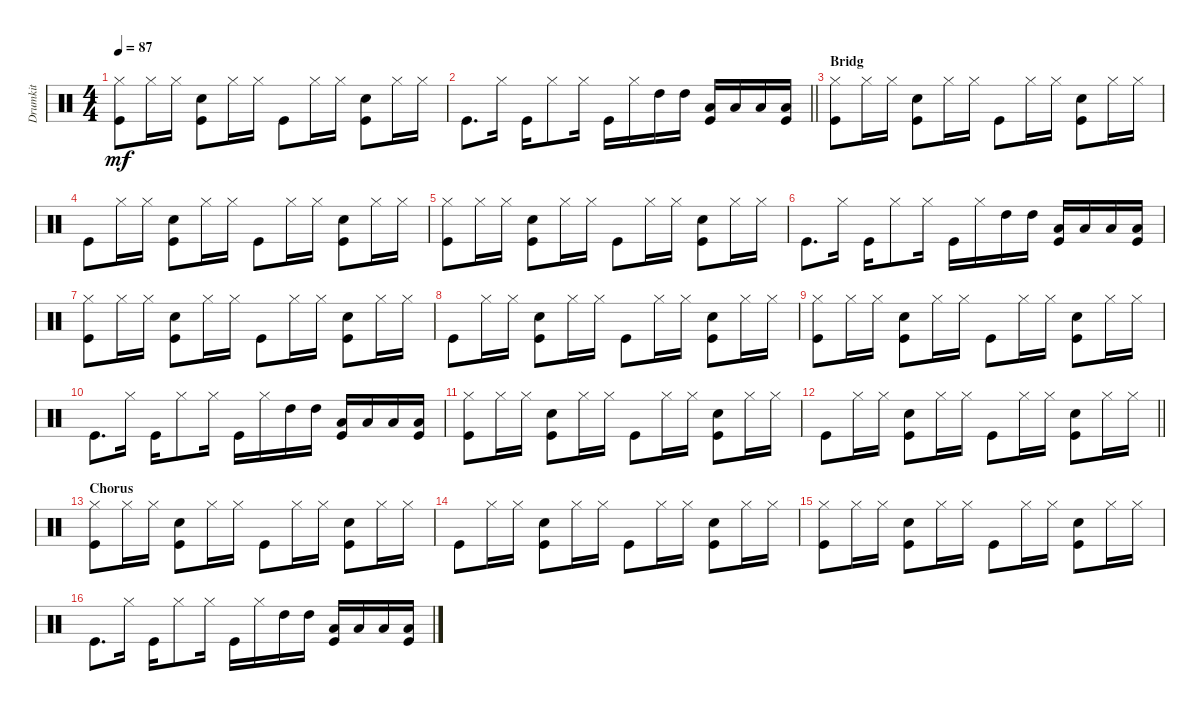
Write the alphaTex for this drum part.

\track ("Drumkit" "Drumkit") {instrument percussion}
\staff {score}
\articulation defaults
\ts (4 4)
\tempo 87
\clef neutral
\ks c
("Kick (hit)" "Hi-Hat (closed)").8{dy mf} "Hi-Hat (closed)".16 "Hi-Hat (closed)".16 ("Kick (hit)" "Snare (hit) 2").8 "Hi-Hat (closed)".16 "Hi-Hat (closed)".16 "Kick (hit)".8 "Hi-Hat (closed)".16 "Hi-Hat (closed)".16 ("Snare (hit) 2" "Kick (hit)").8 "Hi-Hat (closed)".16 "Hi-Hat (closed)".16 |
\barLineRight lightlight "Kick (hit)".8{d} "Hi-Hat (closed)".16 "Kick (hit)".16 "Hi-Hat (closed)".8 "Hi-Hat (closed)".16 "Kick (hit)".16 "Hi-Hat (closed)".16 "High Tom (hit)".16 "High Tom (hit)".16
("Kick (hit)" "Low Tom (hit)").16 "Low Tom (hit)".16 "Low Floor Tom (hit)".16 ("Kick (hit)" "Low Floor Tom (hit)").16 |
\section ("" "Bridg")
("Kick (hit)" "Hi-Hat (closed)").8 "Hi-Hat (closed)".16 "Hi-Hat (closed)".16 ("Kick (hit)" "Snare (hit) 2").8 "Hi-Hat (closed)".16 "Hi-Hat (closed)".16 "Kick (hit)".8 "Hi-Hat (closed)".16 "Hi-Hat (closed)".16 ("Snare (hit) 2" "Kick (hit)").8 "Hi-Hat (closed)".16 "Hi-Hat (closed)".16 |
"Kick (hit)".8 "Hi-Hat (closed)".16 "Hi-Hat (closed)".16 ("Kick (hit)" "Snare (hit) 2").8 "Hi-Hat (closed)".16 "Hi-Hat (closed)".16 "Kick (hit)".8 "Hi-Hat (closed)".16 "Hi-Hat (closed)".16 ("Kick (hit)" "Snare (hit) 2").8 "Hi-Hat (closed)".16 "Hi-Hat (closed)".16 |
("Kick (hit)" "Hi-Hat (closed)").8 "Hi-Hat (closed)".16 "Hi-Hat (closed)".16 ("Kick (hit)" "Snare (hit) 2").8 "Hi-Hat (closed)".16 "Hi-Hat (closed)".16 "Kick (hit)".8 "Hi-Hat (closed)".16 "Hi-Hat (closed)".16 ("Snare (hit) 2" "Kick (hit)").8 "Hi-Hat (closed)".16 "Hi-Hat (closed)".16 |
"Kick (hit)".8{d} "Hi-Hat (closed)".16 "Kick (hit)".16 "Hi-Hat (closed)".8 "Hi-Hat (closed)".16 "Kick (hit)".16 "Hi-Hat (closed)".16 "High Tom (hit)".16 "High Tom (hit)".16 ("Kick (hit)" "Low Tom (hit)").16 "Low Tom (hit)".16 "Low Floor Tom (hit)".16 ("Kick (hit)" "Low Floor Tom (hit)").16 |
("Kick (hit)" "Hi-Hat (closed)").8 "Hi-Hat (closed)".16 "Hi-Hat (closed)".16 ("Kick (hit)" "Snare (hit) 2").8 "Hi-Hat (closed)".16 "Hi-Hat (closed)".16 "Kick (hit)".8 "Hi-Hat (closed)".16 "Hi-Hat (closed)".16 ("Snare (hit) 2" "Kick (hit)").8 "Hi-Hat (closed)".16 "Hi-Hat (closed)".16 |
"Kick (hit)".8 "Hi-Hat (closed)".16 "Hi-Hat (closed)".16 ("Kick (hit)" "Snare (hit) 2").8 "Hi-Hat (closed)".16 "Hi-Hat (closed)".16 "Kick (hit)".8 "Hi-Hat (closed)".16 "Hi-Hat (closed)".16 ("Kick (hit)" "Snare (hit) 2").8 "Hi-Hat (closed)".16 "Hi-Hat (closed)".16 |
("Kick (hit)" "Hi-Hat (closed)").8 "Hi-Hat (closed)".16 "Hi-Hat (closed)".16 ("Kick (hit)" "Snare (hit) 2").8 "Hi-Hat (closed)".16 "Hi-Hat (closed)".16 "Kick (hit)".8 "Hi-Hat (closed)".16 "Hi-Hat (closed)".16 ("Snare (hit) 2" "Kick (hit)").8 "Hi-Hat (closed)".16 "Hi-Hat (closed)".16 |
"Kick (hit)".8{d} "Hi-Hat (closed)".16 "Kick (hit)".16 "Hi-Hat (closed)".8 "Hi-Hat (closed)".16 "Kick (hit)".16 "Hi-Hat (closed)".16 "High Tom (hit)".16 "High Tom (hit)".16 ("Kick (hit)" "Low Tom (hit)").16 "Low Tom (hit)".16 "Low Floor Tom (hit)".16 ("Kick (hit)" "Low Floor Tom (hit)").16 |
("Kick (hit)" "Hi-Hat (closed)").8 "Hi-Hat (closed)".16 "Hi-Hat (closed)".16 ("Kick (hit)" "Snare (hit) 2").8 "Hi-Hat (closed)".16 "Hi-Hat (closed)".16 "Kick (hit)".8 "Hi-Hat (closed)".16 "Hi-Hat (closed)".16 ("Snare (hit) 2" "Kick (hit)").8 "Hi-Hat (closed)".16 "Hi-Hat (closed)".16 |
\barLineRight lightlight "Kick (hit)".8 "Hi-Hat (closed)".16 "Hi-Hat (closed)".16
("Kick (hit)" "Snare (hit) 2").8 "Hi-Hat (closed)".16 "Hi-Hat (closed)".16 "Kick (hit)".8 "Hi-Hat (closed)".16 "Hi-Hat (closed)".16 ("Kick (hit)" "Snare (hit) 2").8 "Hi-Hat (closed)".16 "Hi-Hat (closed)".16 |
\section ("" "Chorus")
("Kick (hit)" "Hi-Hat (closed)").8 "Hi-Hat (closed)".16 "Hi-Hat (closed)".16 ("Kick (hit)" "Snare (hit) 2").8 "Hi-Hat (closed)".16 "Hi-Hat (closed)".16 "Kick (hit)".8 "Hi-Hat (closed)".16 "Hi-Hat (closed)".16 ("Snare (hit) 2" "Kick (hit)").8 "Hi-Hat (closed)".16 "Hi-Hat (closed)".16 |
"Kick (hit)".8 "Hi-Hat (closed)".16 "Hi-Hat (closed)".16 ("Kick (hit)" "Snare (hit) 2").8 "Hi-Hat (closed)".16 "Hi-Hat (closed)".16 "Kick (hit)".8 "Hi-Hat (closed)".16 "Hi-Hat (closed)".16 ("Kick (hit)" "Snare (hit) 2").8 "Hi-Hat (closed)".16 "Hi-Hat (closed)".16 |
("Kick (hit)" "Hi-Hat (closed)").8 "Hi-Hat (closed)".16 "Hi-Hat (closed)".16 ("Kick (hit)" "Snare (hit) 2").8 "Hi-Hat (closed)".16 "Hi-Hat (closed)".16 "Kick (hit)".8 "Hi-Hat (closed)".16 "Hi-Hat (closed)".16 ("Snare (hit) 2" "Kick (hit)").8 "Hi-Hat (closed)".16 "Hi-Hat (closed)".16 |
"Kick (hit)".8{d} "Hi-Hat (closed)".16 "Kick (hit)".16 "Hi-Hat (closed)".8 "Hi-Hat (closed)".16 "Kick (hit)".16 "Hi-Hat (closed)".16 "High Tom (hit)".16 "High Tom (hit)".16 ("Kick (hit)" "Low Tom (hit)").16 "Low Tom (hit)".16 "Low Floor Tom (hit)".16 ("Kick (hit)" "Low Floor Tom (hit)").16
